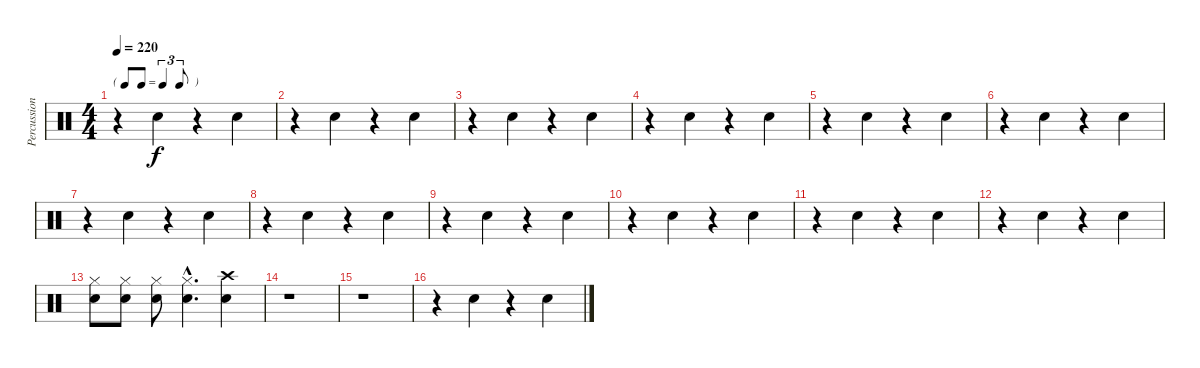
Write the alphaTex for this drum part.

\track ("Percussion" "Percussion") {instrument percussion}
\staff {score}
\articulation defaults
\ts (4 4)
\tf triplet8th
\tempo 220
\clef neutral
\ks c
r.4{dy f} "Snare (hit) 2".4 r.4 "Snare (hit) 2".4 |
r.4 "Snare (hit) 2".4 r.4 "Snare (hit) 2".4 |
r.4 "Snare (hit) 2".4 r.4 "Snare (hit) 2".4 |
r.4 "Snare (hit) 2".4 r.4 "Snare (hit) 2".4 |
r.4 "Snare (hit) 2".4 r.4 "Snare (hit) 2".4 |
r.4 "Snare (hit) 2".4 r.4 "Snare (hit) 2".4 |
r.4 "Snare (hit) 2".4 r.4 "Snare (hit) 2".4 |
r.4 "Snare (hit) 2".4 r.4 "Snare (hit) 2".4 |
r.4 "Snare (hit) 2".4 r.4 "Snare (hit) 2".4 |
r.4 "Snare (hit) 2".4 r.4 "Snare (hit) 2".4 |
r.4 "Snare (hit) 2".4 r.4 "Snare (hit) 2".4 |
r.4 "Snare (hit) 2".4 r.4 "Snare (hit) 2".4 |
("Hi-Hat (closed)" "Snare (hit) 2").8 ("Hi-Hat (closed)" "Snare (hit) 2").8 ("Hi-Hat (closed)" "Snare (hit) 2").8 ("Hi-Hat (closed)"{hac} "Snare (hit) 2"{hac}).4{d} ("Crash high (hit)" "Snare (hit) 2").4 |
r.1 |
r.1 |
r.4 "Snare (hit) 2".4 r.4 "Snare (hit) 2".4
